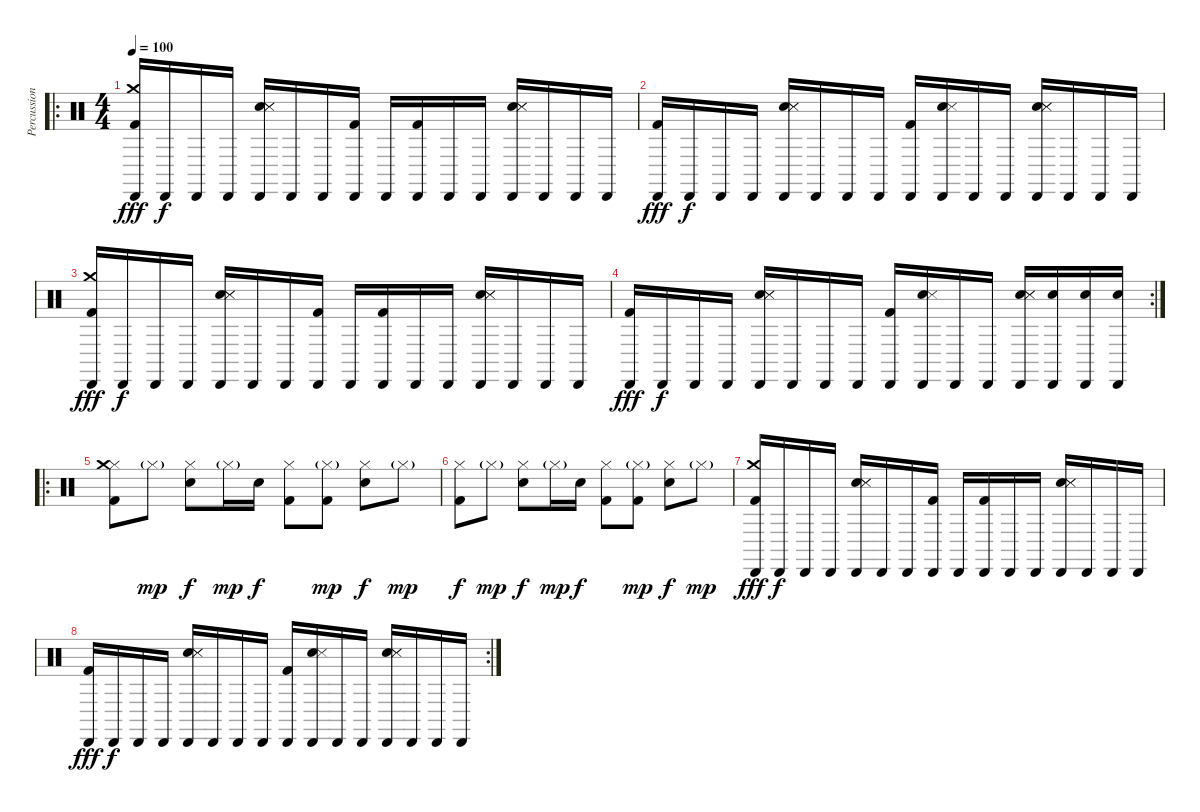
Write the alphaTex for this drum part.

\track ("Percussion" "Percussion") {instrument percussion}
\staff {score}
\articulation defaults
\ro
\ts (4 4)
\tempo 100
\clef neutral
\ks c
("Cabasa (hit)" "Crash medium (hit)" "Kick (hit) 2").16{dy fff volume 12} "Cabasa (hit)".16{dy f} "Cabasa (hit)".16 "Cabasa (hit)".16 ("Cabasa (hit)" "Electric Snare (hit)" "Metronome (hit)" "Snare (side stick) 3").16 "Cabasa (hit)".16 "Cabasa (hit)".16 ("Cabasa (hit)" "Kick (hit) 2").16 "Cabasa (hit)".16 ("Cabasa (hit)" "Kick (hit) 2").16 "Cabasa (hit)".16 "Cabasa (hit)".16 ("Cabasa (hit)" "Electric Snare (hit)" "Metronome (hit)" "Snare (side stick) 3").16 "Cabasa (hit)".16 "Cabasa (hit)".16 "Cabasa (hit)".16 |
("Cabasa (hit)" "Kick (hit) 2").16{dy fff} "Cabasa (hit)".16{dy f} "Cabasa (hit)".16 "Cabasa (hit)".16 ("Cabasa (hit)" "Electric Snare (hit)" "Metronome (hit)" "Snare (side stick) 3").16 "Cabasa (hit)".16 "Cabasa (hit)".16 "Cabasa (hit)".16 ("Cabasa (hit)" "Kick (hit) 2").16 ("Cabasa (hit)" "Electric Snare (hit)" "Metronome (hit)").16 "Cabasa (hit)".16 "Cabasa (hit)".16 ("Cabasa (hit)" "Electric Snare (hit)" "Metronome (hit)" "Snare (side stick) 3").16 "Cabasa (hit)".16 "Cabasa (hit)".16 "Cabasa (hit)".16 |
("Cabasa (hit)" "Crash medium (hit)" "Kick (hit) 2").16{dy fff volume 12} "Cabasa (hit)".16{dy f} "Cabasa (hit)".16 "Cabasa (hit)".16 ("Cabasa (hit)" "Electric Snare (hit)" "Metronome (hit)" "Snare (side stick) 3").16 "Cabasa (hit)".16 "Cabasa (hit)".16 ("Cabasa (hit)" "Kick (hit) 2").16 "Cabasa (hit)".16 ("Cabasa (hit)" "Kick (hit) 2").16 "Cabasa (hit)".16 "Cabasa (hit)".16 ("Cabasa (hit)" "Electric Snare (hit)" "Metronome (hit)" "Snare (side stick) 3").16 "Cabasa (hit)".16 "Cabasa (hit)".16 "Cabasa (hit)".16 |
\rc 2
("Cabasa (hit)" "Kick (hit) 2").16{dy fff} "Cabasa (hit)".16{dy f} "Cabasa (hit)".16 "Cabasa (hit)".16 ("Cabasa (hit)" "Electric Snare (hit)" "Metronome (hit)" "Snare (side stick) 3").16 "Cabasa (hit)".16 "Cabasa (hit)".16 "Cabasa (hit)".16 ("Cabasa (hit)" "Kick (hit) 2").16 ("Cabasa (hit)" "Electric Snare (hit)" "Metronome (hit)").16 "Cabasa (hit)".16 "Cabasa (hit)".16 ("Cabasa (hit)" "Electric Snare (hit)" "Metronome (hit)" "Snare (side stick) 3").16 ("Cabasa (hit)" "Electric Snare (hit)").16 ("Cabasa (hit)" "Electric Snare (hit)").16 ("Cabasa (hit)" "Electric Snare (hit)").16 |
\ro
("Hi-Hat (closed)" "Kick (hit) 2" "Crash medium (hit)").8{volume 15} "Hi-Hat (closed)"{g}.8{dy mp} ("Hi-Hat (closed)" "Electric Snare (hit)").8{dy f} "Hi-Hat (closed)"{g}.16{dy mp} "Electric Snare (hit)".16{dy f} ("Hi-Hat (closed)" "Kick (hit) 2").8 ("Hi-Hat (closed)"{g} "Kick (hit) 2").8{dy mp} ("Hi-Hat (closed)" "Electric Snare (hit)").8{dy f} "Hi-Hat (closed)"{g}.8{dy mp} |
("Hi-Hat (closed)" "Kick (hit) 2").8{dy f volume 15} "Hi-Hat (closed)"{g}.8{dy mp} ("Hi-Hat (closed)" "Electric Snare (hit)").8{dy f} "Hi-Hat (closed)"{g}.16{dy mp} "Electric Snare (hit)".16{dy f} ("Hi-Hat (closed)" "Kick (hit) 2").8 ("Hi-Hat (closed)"{g} "Kick (hit) 2").8{dy mp} ("Hi-Hat (closed)" "Electric Snare (hit)").8{dy f} "Hi-Hat (closed)"{g}.8{dy mp} |
("Cabasa (hit)" "Crash medium (hit)" "Kick (hit) 2").16{dy fff volume 12} "Cabasa (hit)".16{dy f} "Cabasa (hit)".16 "Cabasa (hit)".16 ("Cabasa (hit)" "Electric Snare (hit)" "Metronome (hit)" "Snare (side stick) 3").16 "Cabasa (hit)".16 "Cabasa (hit)".16 ("Cabasa (hit)" "Kick (hit) 2").16 "Cabasa (hit)".16 ("Cabasa (hit)" "Kick (hit) 2").16 "Cabasa (hit)".16 "Cabasa (hit)".16 ("Cabasa (hit)" "Electric Snare (hit)" "Metronome (hit)" "Snare (side stick) 3").16 "Cabasa (hit)".16 "Cabasa (hit)".16 "Cabasa (hit)".16 |
\rc 2
("Cabasa (hit)" "Kick (hit) 2").16{dy fff} "Cabasa (hit)".16{dy f} "Cabasa (hit)".16 "Cabasa (hit)".16 ("Cabasa (hit)" "Electric Snare (hit)" "Metronome (hit)" "Snare (side stick) 3").16 "Cabasa (hit)".16 "Cabasa (hit)".16 "Cabasa (hit)".16 ("Cabasa (hit)" "Kick (hit) 2").16 ("Cabasa (hit)" "Electric Snare (hit)" "Metronome (hit)").16 "Cabasa (hit)".16 "Cabasa (hit)".16 ("Cabasa (hit)" "Electric Snare (hit)" "Metronome (hit)" "Snare (side stick) 3").16 "Cabasa (hit)".16 "Cabasa (hit)".16 "Cabasa (hit)".16
